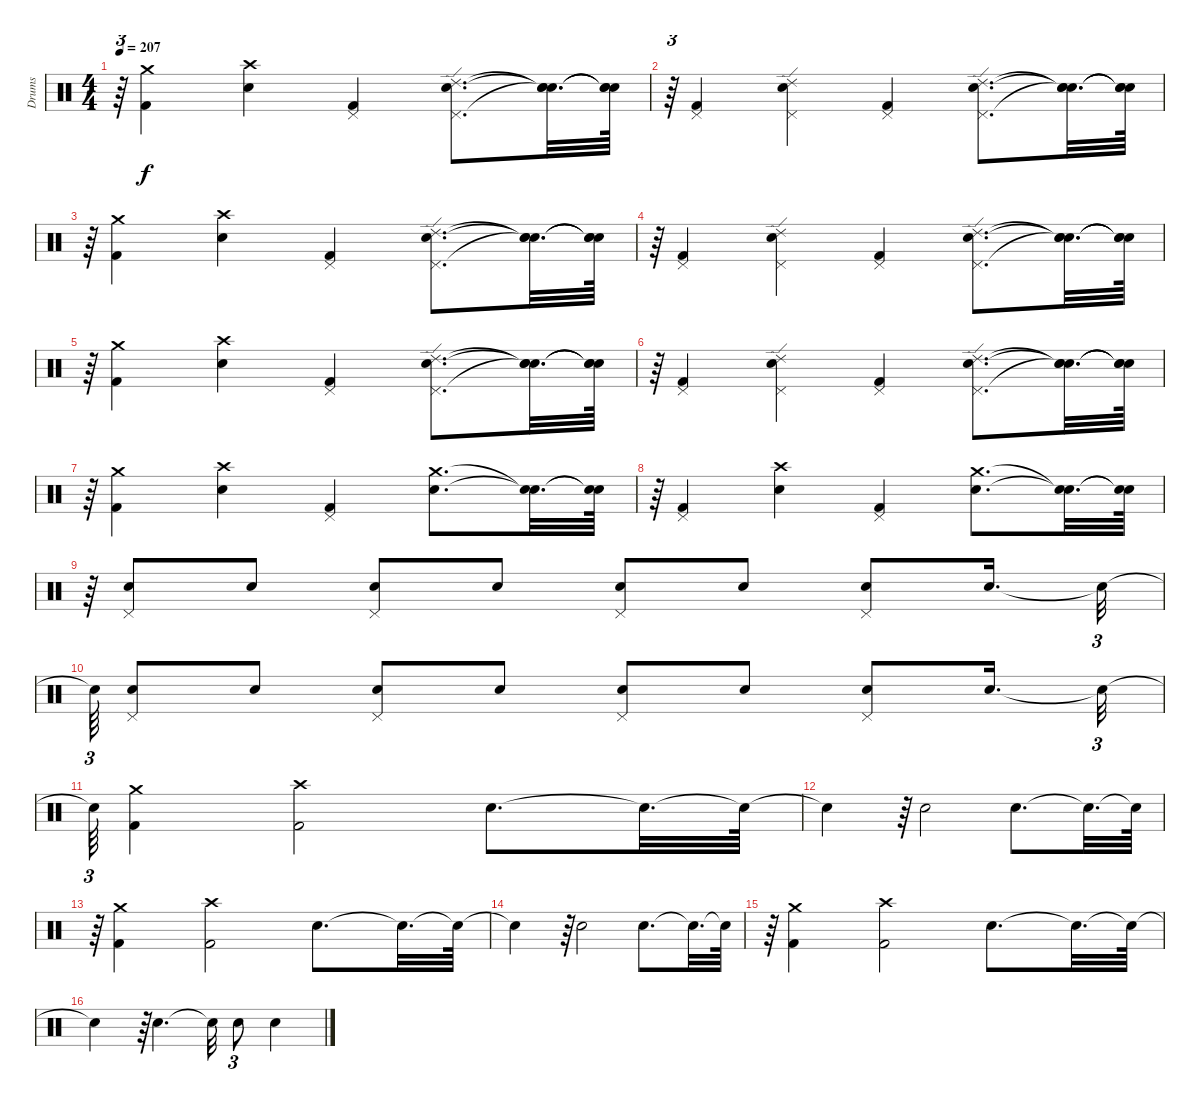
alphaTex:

\track ("Drums" "Drums") {instrument percussion}
\staff {score}
\articulation defaults
\ts (4 4)
\tempo 207
\clef neutral
\ks c
r.64{tu (3 2) dy f} ("Kick (hit) 2" "Crash medium (hit)").4 ("Snare (hit) 2" "Crash high (hit)").4 ("Pedal Hi-Hat (hit)" "Kick (hit) 2").4 ("Pedal Hi-Hat (hit)" "Snare (hit) 2" "Ride (edge) 2").8{d} ("Snare (hit)"{t} "Snare (hit)"{t} "Snare (hit)"{t}).32{d} ("Snare (hit)"{t} "Snare (hit)"{t} "Snare (hit)"{t}).64 |
r.64{tu (3 2)} ("Pedal Hi-Hat (hit)" "Kick (hit) 2").4 ("Pedal Hi-Hat (hit)" "Snare (hit) 2" "Ride (edge) 2").4 ("Pedal Hi-Hat (hit)" "Kick (hit) 2").4 ("Pedal Hi-Hat (hit)" "Snare (hit) 2" "Ride (edge) 2").8{d} ("Snare (hit)"{t} "Snare (hit)"{t} "Snare (hit)"{t}).32{d} ("Snare (hit)"{t} "Snare (hit)"{t} "Snare (hit)"{t}).64 |
r.64{tu (3 2)} ("Kick (hit) 2" "Crash medium (hit)").4 ("Snare (hit) 2" "Crash high (hit)").4 ("Pedal Hi-Hat (hit)" "Kick (hit) 2").4 ("Pedal Hi-Hat (hit)" "Ride (edge) 2" "Snare (hit) 2").8{d} ("Snare (hit)"{t} "Snare (hit)"{t} "Snare (hit)"{t}).32{d} ("Snare (hit)"{t} "Snare (hit)"{t} "Snare (hit)"{t}).64 |
r.64{tu (3 2)} ("Pedal Hi-Hat (hit)" "Kick (hit) 2").4 ("Pedal Hi-Hat (hit)" "Ride (edge) 2" "Snare (hit) 2").4 ("Pedal Hi-Hat (hit)" "Kick (hit) 2").4 ("Pedal Hi-Hat (hit)" "Ride (edge) 2" "Snare (hit) 2").8{d} ("Snare (hit)"{t} "Snare (hit)"{t} "Snare (hit)"{t}).32{d} ("Snare (hit)"{t} "Snare (hit)"{t} "Snare (hit)"{t}).64 |
r.64{tu (3 2)} ("Kick (hit) 2" "Crash medium (hit)").4 ("Snare (hit) 2" "Crash high (hit)").4 ("Pedal Hi-Hat (hit)" "Kick (hit) 2").4 ("Pedal Hi-Hat (hit)" "Ride (edge) 2" "Snare (hit) 2").8{d} ("Snare (hit)"{t} "Snare (hit)"{t} "Snare (hit)"{t}).32{d} ("Snare (hit)"{t} "Snare (hit)"{t} "Snare (hit)"{t}).64 |
r.64{tu (3 2)} ("Pedal Hi-Hat (hit)" "Kick (hit) 2").4 ("Pedal Hi-Hat (hit)" "Ride (edge) 2" "Snare (hit) 2").4 ("Pedal Hi-Hat (hit)" "Kick (hit) 2").4 ("Pedal Hi-Hat (hit)" "Ride (edge) 2" "Snare (hit) 2").8{d} ("Snare (hit)"{t} "Snare (hit)"{t} "Snare (hit)"{t}).32{d} ("Snare (hit)"{t} "Snare (hit)"{t} "Snare (hit)"{t}).64 |
r.64{tu (3 2)} ("Kick (hit) 2" "Crash medium (hit)").4 ("Snare (hit) 2" "Crash high (hit)").4 ("Pedal Hi-Hat (hit)" "Kick (hit) 2").4 ("Snare (hit) 2" "Crash medium (hit)").8{d} ("Snare (hit)"{t} "Snare (hit)"{t}).32{d} ("Snare (hit)"{t} "Snare (hit)"{t}).64 |
r.64{tu (3 2)} ("Pedal Hi-Hat (hit)" "Kick (hit) 2").4 ("Snare (hit) 2" "Crash high (hit)").4 ("Pedal Hi-Hat (hit)" "Kick (hit) 2").4 ("Snare (hit) 2" "Crash medium (hit)").8{d} ("Snare (hit)"{t} "Snare (hit)"{t}).32{d} ("Snare (hit)"{t} "Snare (hit)"{t}).64 |
r.64{tu (3 2)} ("Pedal Hi-Hat (hit)" "Snare (hit) 2").8 "Snare (hit) 2".8 ("Pedal Hi-Hat (hit)" "Snare (hit) 2").8 "Snare (hit) 2".8 ("Pedal Hi-Hat (hit)" "Snare (hit) 2").8 "Snare (hit) 2".8 ("Pedal Hi-Hat (hit)" "Snare (hit) 2").8 "Snare (hit) 2".16{d} "Snare (hit)"{t}.32{tu (3 2)} |
"Snare (hit)"{t}.64{tu (3 2)} ("Pedal Hi-Hat (hit)" "Snare (hit) 2").8 "Snare (hit) 2".8 ("Pedal Hi-Hat (hit)" "Snare (hit) 2").8 "Snare (hit) 2".8 ("Pedal Hi-Hat (hit)" "Snare (hit) 2").8 "Snare (hit) 2".8 ("Pedal Hi-Hat (hit)" "Snare (hit) 2").8 "Snare (hit) 2".16{d} "Snare (hit)"{t}.32{tu (3 2)} |
"Snare (hit)"{t}.64{tu (3 2)} ("Kick (hit) 2" "Crash medium (hit)").4 ("Kick (hit) 2" "Crash high (hit)").2 "Snare (hit) 2".8{d} "Snare (hit)"{t}.32{d} "Snare (hit)"{t}.64 |
"Snare (hit)"{t}.4 r.64{tu (3 2)} "Snare (hit) 2".2 "Snare (hit) 2".8{d} "Snare (hit)"{t}.32{d} "Snare (hit)"{t}.64 |
r.64{tu (3 2)} ("Kick (hit) 2" "Crash medium (hit)").4 ("Kick (hit) 2" "Crash high (hit)").2 "Snare (hit) 2".8{d} "Snare (hit)"{t}.32{d} "Snare (hit)"{t}.64 |
"Snare (hit)"{t}.4 r.64{tu (3 2)} "Snare (hit) 2".2 "Snare (hit) 2".8{d} "Snare (hit)"{t}.32{d} "Snare (hit)"{t}.64 |
r.64{tu (3 2)} ("Kick (hit) 2" "Crash medium (hit)").4 ("Kick (hit) 2" "Crash high (hit)").2 "Snare (hit) 2".8{d} "Snare (hit)"{t}.32{d} "Snare (hit)"{t}.64 |
"Snare (hit)"{t}.4 r.64{tu (3 2)} "Snare (hit) 2".4{d} "Snare (hit)"{t}.32 "Snare (hit) 2".8{tu (3 2)} "Snare (hit) 2".4
